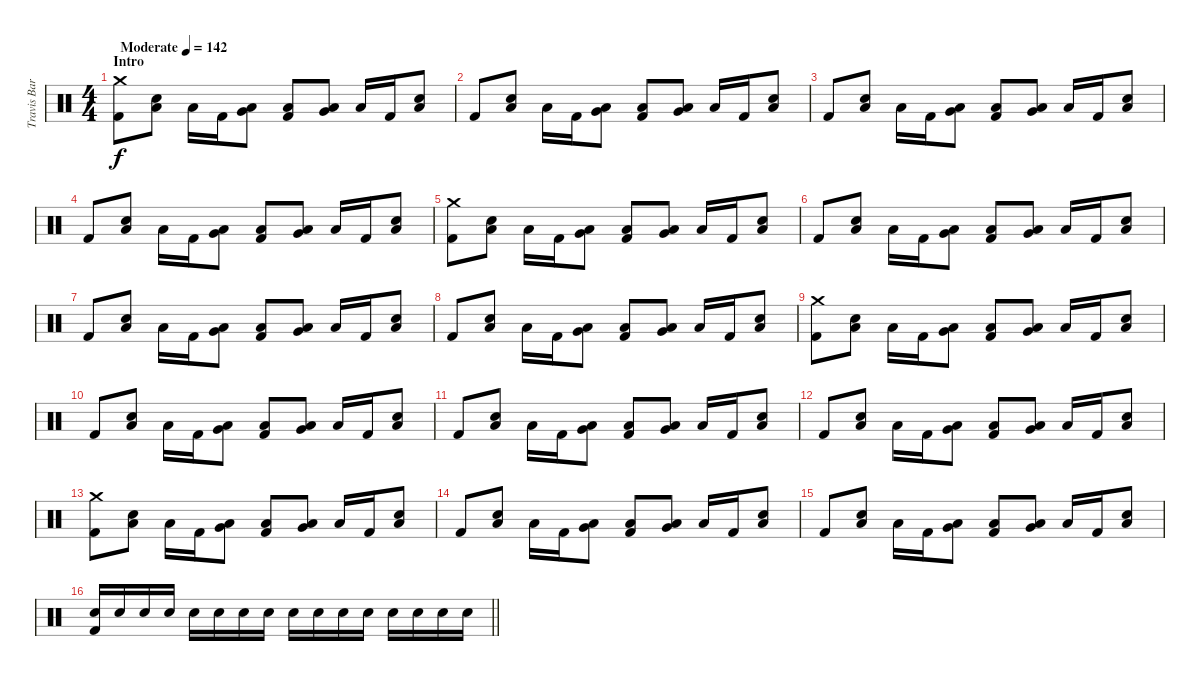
\track ("Travis Barker - Drums" "Travis Bar") {instrument percussion}
\staff {score}
\articulation defaults
\ts (4 4)
\section ("" "Intro")
\tempo (142 "Moderate")
\clef neutral
\ks c
("Crash medium (hit)" "Kick (hit) 2").8{dy f} ("Low Floor Tom (hit)" "Electric Snare (hit)").8 "Low Floor Tom (hit)".16{beam Down} "Kick (hit) 2".16{beam Down} ("Low Tom (hit)" "Very Low Tom (hit)").8{beam Down} ("Low Floor Tom (hit)" "Kick (hit) 2").8 ("Low Tom (hit)" "Very Low Tom (hit)").8 "Low Floor Tom (hit)".16 "Kick (hit) 2".16 ("Electric Snare (hit)" "Low Floor Tom (hit)").8 |
"Kick (hit) 2".8 ("Low Floor Tom (hit)" "Electric Snare (hit)").8 "Low Floor Tom (hit)".16{beam Down} "Kick (hit) 2".16{beam Down} ("Low Tom (hit)" "Very Low Tom (hit)").8{beam Down} ("Low Floor Tom (hit)" "Kick (hit) 2").8 ("Low Tom (hit)" "Very Low Tom (hit)").8 "Low Floor Tom (hit)".16 "Kick (hit) 2".16 ("Electric Snare (hit)" "Low Floor Tom (hit)").8 |
"Kick (hit) 2".8 ("Low Floor Tom (hit)" "Electric Snare (hit)").8 "Low Floor Tom (hit)".16{beam Down} "Kick (hit) 2".16{beam Down} ("Low Tom (hit)" "Very Low Tom (hit)").8{beam Down} ("Low Floor Tom (hit)" "Kick (hit) 2").8 ("Low Tom (hit)" "Very Low Tom (hit)").8 "Low Floor Tom (hit)".16 "Kick (hit) 2".16 ("Electric Snare (hit)" "Low Floor Tom (hit)").8 |
"Kick (hit) 2".8 ("Low Floor Tom (hit)" "Electric Snare (hit)").8 "Low Floor Tom (hit)".16{beam Down} "Kick (hit) 2".16{beam Down} ("Low Tom (hit)" "Very Low Tom (hit)").8{beam Down} ("Low Floor Tom (hit)" "Kick (hit) 2").8 ("Low Tom (hit)" "Very Low Tom (hit)").8 "Low Floor Tom (hit)".16 "Kick (hit) 2".16 ("Electric Snare (hit)" "Low Floor Tom (hit)").8 |
("Crash medium (hit)" "Kick (hit) 2").8 ("Low Floor Tom (hit)" "Electric Snare (hit)").8 "Low Floor Tom (hit)".16{beam Down} "Kick (hit) 2".16{beam Down} ("Low Tom (hit)" "Very Low Tom (hit)").8{beam Down} ("Low Floor Tom (hit)" "Kick (hit) 2").8 ("Low Tom (hit)" "Very Low Tom (hit)").8 "Low Floor Tom (hit)".16 "Kick (hit) 2".16 ("Electric Snare (hit)" "Low Floor Tom (hit)").8 |
"Kick (hit) 2".8 ("Low Floor Tom (hit)" "Electric Snare (hit)").8 "Low Floor Tom (hit)".16{beam Down} "Kick (hit) 2".16{beam Down} ("Low Tom (hit)" "Very Low Tom (hit)").8{beam Down} ("Low Floor Tom (hit)" "Kick (hit) 2").8 ("Low Tom (hit)" "Very Low Tom (hit)").8 "Low Floor Tom (hit)".16 "Kick (hit) 2".16 ("Electric Snare (hit)" "Low Floor Tom (hit)").8 |
"Kick (hit) 2".8 ("Low Floor Tom (hit)" "Electric Snare (hit)").8 "Low Floor Tom (hit)".16{beam Down} "Kick (hit) 2".16{beam Down} ("Low Tom (hit)" "Very Low Tom (hit)").8{beam Down} ("Low Floor Tom (hit)" "Kick (hit) 2").8 ("Low Tom (hit)" "Very Low Tom (hit)").8 "Low Floor Tom (hit)".16 "Kick (hit) 2".16 ("Electric Snare (hit)" "Low Floor Tom (hit)").8 |
"Kick (hit) 2".8 ("Low Floor Tom (hit)" "Electric Snare (hit)").8 "Low Floor Tom (hit)".16{beam Down} "Kick (hit) 2".16{beam Down} ("Low Tom (hit)" "Very Low Tom (hit)").8{beam Down} ("Low Floor Tom (hit)" "Kick (hit) 2").8 ("Low Tom (hit)" "Very Low Tom (hit)").8 "Low Floor Tom (hit)".16 "Kick (hit) 2".16 ("Electric Snare (hit)" "Low Floor Tom (hit)").8 |
("Crash medium (hit)" "Kick (hit) 2").8 ("Low Floor Tom (hit)" "Electric Snare (hit)").8 "Low Floor Tom (hit)".16{beam Down} "Kick (hit) 2".16{beam Down} ("Low Tom (hit)" "Very Low Tom (hit)").8{beam Down} ("Low Floor Tom (hit)" "Kick (hit) 2").8 ("Low Tom (hit)" "Very Low Tom (hit)").8 "Low Floor Tom (hit)".16 "Kick (hit) 2".16 ("Electric Snare (hit)" "Low Floor Tom (hit)").8 |
"Kick (hit) 2".8 ("Low Floor Tom (hit)" "Electric Snare (hit)").8 "Low Floor Tom (hit)".16{beam Down} "Kick (hit) 2".16{beam Down} ("Low Tom (hit)" "Very Low Tom (hit)").8{beam Down} ("Low Floor Tom (hit)" "Kick (hit) 2").8 ("Low Tom (hit)" "Very Low Tom (hit)").8 "Low Floor Tom (hit)".16 "Kick (hit) 2".16 ("Electric Snare (hit)" "Low Floor Tom (hit)").8 |
"Kick (hit) 2".8 ("Low Floor Tom (hit)" "Electric Snare (hit)").8 "Low Floor Tom (hit)".16{beam Down} "Kick (hit) 2".16{beam Down} ("Low Tom (hit)" "Very Low Tom (hit)").8{beam Down} ("Low Floor Tom (hit)" "Kick (hit) 2").8 ("Low Tom (hit)" "Very Low Tom (hit)").8 "Low Floor Tom (hit)".16 "Kick (hit) 2".16 ("Electric Snare (hit)" "Low Floor Tom (hit)").8 |
"Kick (hit) 2".8 ("Low Floor Tom (hit)" "Electric Snare (hit)").8 "Low Floor Tom (hit)".16{beam Down} "Kick (hit) 2".16{beam Down} ("Low Tom (hit)" "Very Low Tom (hit)").8{beam Down} ("Low Floor Tom (hit)" "Kick (hit) 2").8 ("Low Tom (hit)" "Very Low Tom (hit)").8 "Low Floor Tom (hit)".16 "Kick (hit) 2".16 ("Electric Snare (hit)" "Low Floor Tom (hit)").8 |
("Crash medium (hit)" "Kick (hit) 2").8 ("Low Floor Tom (hit)" "Electric Snare (hit)").8 "Low Floor Tom (hit)".16{beam Down} "Kick (hit) 2".16{beam Down} ("Low Tom (hit)" "Very Low Tom (hit)").8{beam Down} ("Low Floor Tom (hit)" "Kick (hit) 2").8 ("Low Tom (hit)" "Very Low Tom (hit)").8 "Low Floor Tom (hit)".16 "Kick (hit) 2".16 ("Electric Snare (hit)" "Low Floor Tom (hit)").8 |
"Kick (hit) 2".8 ("Low Floor Tom (hit)" "Electric Snare (hit)").8 "Low Floor Tom (hit)".16{beam Down} "Kick (hit) 2".16{beam Down} ("Low Tom (hit)" "Very Low Tom (hit)").8{beam Down} ("Low Floor Tom (hit)" "Kick (hit) 2").8 ("Low Tom (hit)" "Very Low Tom (hit)").8 "Low Floor Tom (hit)".16 "Kick (hit) 2".16 ("Electric Snare (hit)" "Low Floor Tom (hit)").8 |
"Kick (hit) 2".8 ("Low Floor Tom (hit)" "Electric Snare (hit)").8 "Low Floor Tom (hit)".16{beam Down} "Kick (hit) 2".16{beam Down} ("Low Tom (hit)" "Very Low Tom (hit)").8{beam Down} ("Low Floor Tom (hit)" "Kick (hit) 2").8 ("Low Tom (hit)" "Very Low Tom (hit)").8 "Low Floor Tom (hit)".16 "Kick (hit) 2".16 ("Electric Snare (hit)" "Low Floor Tom (hit)").8 |
\barLineRight lightlight
("Electric Snare (hit)" "Kick (hit) 2").16 "Electric Snare (hit)".16{volume 9} "Electric Snare (hit)".16{volume 12} "Electric Snare (hit)".16 "Electric Snare (hit)".16 "Electric Snare (hit)".16 "Electric Snare (hit)".16 "Electric Snare (hit)".16 "Electric Snare (hit)".16 "Electric Snare (hit)".16 "Electric Snare (hit)".16 "Electric Snare (hit)".16 "Electric Snare (hit)".16 "Electric Snare (hit)".16 "Electric Snare (hit)".16 "Electric Snare (hit)".16
